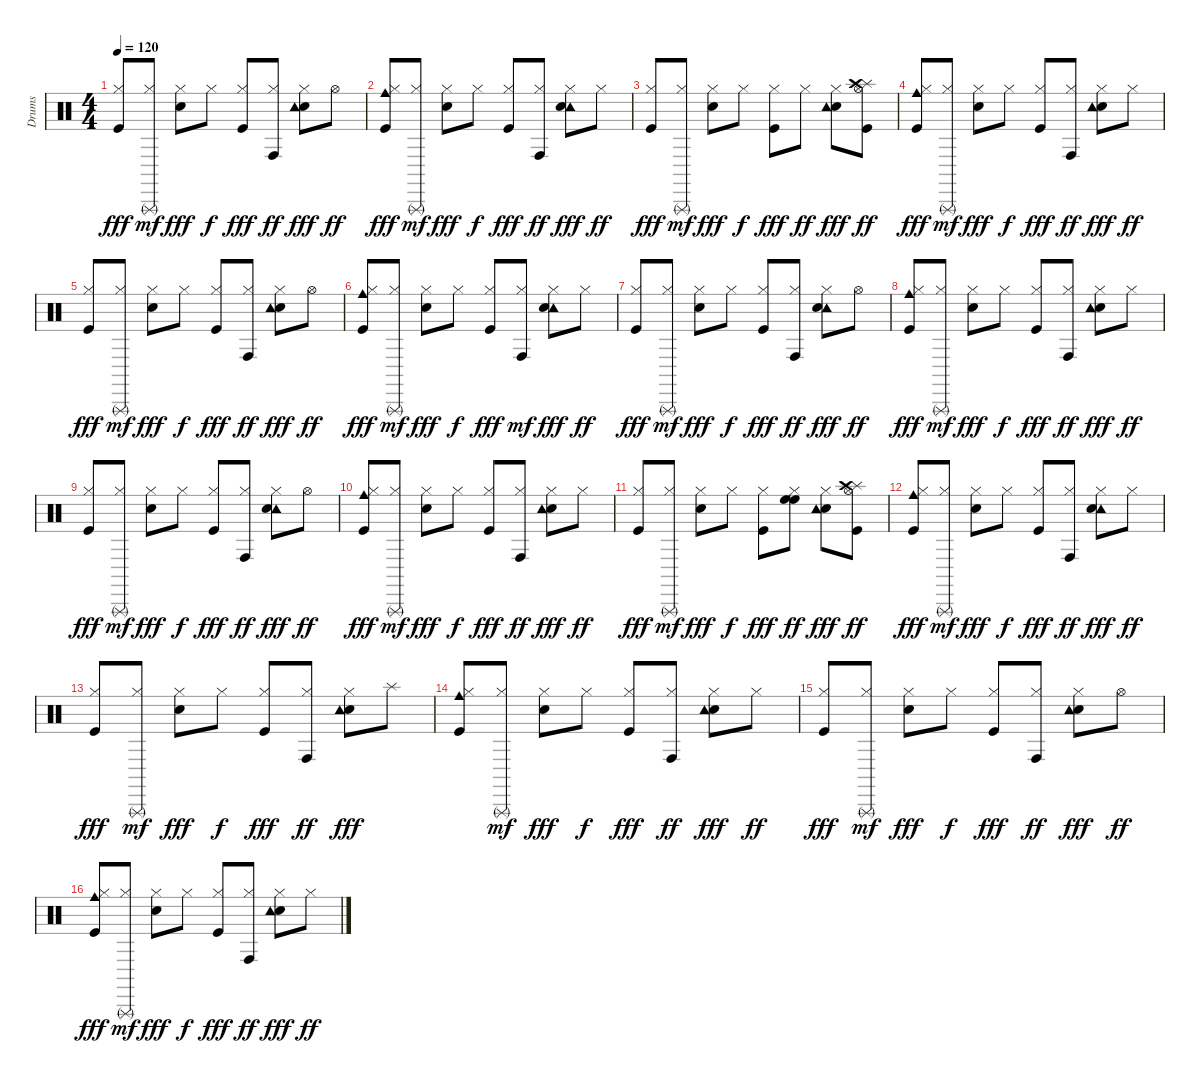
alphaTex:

\track ("Drums " "Drums ") {instrument percussion}
\staff {score}
\articulation defaults
\ts (4 4)
\tempo 120
\clef neutral
\ks c
("Hi-Hat (closed)" "Kick (hit)").8{dy fff} ("Triangle (rnute)" "Hi-Hat (closed)").8{dy mf} ("Hi-Hat (closed)" "Electric Snare (hit)").8{dy fff} "Hi-Hat (closed)".8{dy f} ("Hi-Hat (closed)" "Kick (hit)").8{dy fff} ("Conga high (hit)" "Hi-Hat (closed)").8{dy ff} ("Electric Snare (hit)" "Tambourine (hit)" "Hi-Hat (closed)").8{dy fff} "Hi-Hat (open)".8{dy ff} |
("Hi-Hat (closed)" "Kick (hit)" "Cowbell medium (hit)").8{dy fff} ("Triangle (rnute)" "Hi-Hat (closed)").8{dy mf} ("Hi-Hat (closed)" "Electric Snare (hit)").8{dy fff} "Hi-Hat (closed)".8{dy f} ("Hi-Hat (closed)" "Kick (hit)").8{dy fff} ("Conga high (hit)" "Hi-Hat (closed)").8{dy ff} ("Tambourine (hit)" "Hi-Hat (closed)" "Electric Snare (hit)").8{dy fff} "Hi-Hat (closed)".8{dy ff} |
("Hi-Hat (closed)" "Kick (hit)").8{dy fff} ("Triangle (rnute)" "Hi-Hat (closed)").8{dy mf} ("Hi-Hat (closed)" "Electric Snare (hit)").8{dy fff} "Hi-Hat (closed)".8{dy f} ("Hi-Hat (closed)" "Kick (hit)").8{dy fff} "Hi-Hat (closed)".8{dy ff} ("Electric Snare (hit)" "Tambourine (hit)" "Hi-Hat (closed)").8{dy fff} ("Hi-Hat (open)" "Kick (hit)" "Splash (hit)" "Crash high (hit)").8{dy ff} |
("Hi-Hat (closed)" "Kick (hit)" "Cowbell medium (hit)").8{dy fff} ("Triangle (rnute)" "Hi-Hat (closed)").8{dy mf} ("Hi-Hat (closed)" "Electric Snare (hit)").8{dy fff} "Hi-Hat (closed)".8{dy f} ("Hi-Hat (closed)" "Kick (hit)").8{dy fff} ("Conga high (hit)" "Hi-Hat (closed)").8{dy ff} ("Electric Snare (hit)" "Tambourine (hit)" "Hi-Hat (closed)").8{dy fff} "Hi-Hat (closed)".8{dy ff} |
("Hi-Hat (closed)" "Kick (hit)").8{dy fff} ("Triangle (rnute)" "Hi-Hat (closed)").8{dy mf} ("Electric Snare (hit)" "Hi-Hat (closed)").8{dy fff} "Hi-Hat (closed)".8{dy f} ("Hi-Hat (closed)" "Kick (hit)").8{dy fff} ("Conga high (hit)" "Hi-Hat (closed)").8{dy ff} ("Electric Snare (hit)" "Tambourine (hit)" "Hi-Hat (closed)").8{dy fff} "Hi-Hat (open)".8{dy ff} |
("Hi-Hat (closed)" "Kick (hit)" "Cowbell medium (hit)").8{dy fff} ("Triangle (rnute)" "Hi-Hat (closed)").8{dy mf} ("Hi-Hat (closed)" "Electric Snare (hit)").8{dy fff} "Hi-Hat (closed)".8{dy f} ("Hi-Hat (closed)" "Kick (hit)").8{dy fff} ("Hi-Hat (closed)" "Conga high (hit)").8{dy mf} ("Tambourine (hit)" "Hi-Hat (closed)" "Electric Snare (hit)").8{dy fff} "Hi-Hat (closed)".8{dy ff} |
("Hi-Hat (closed)" "Kick (hit)").8{dy fff} ("Triangle (rnute)" "Hi-Hat (closed)").8{dy mf} ("Hi-Hat (closed)" "Electric Snare (hit)").8{dy fff} "Hi-Hat (closed)".8{dy f} ("Hi-Hat (closed)" "Kick (hit)").8{dy fff} ("Conga high (hit)" "Hi-Hat (closed)").8{dy ff} ("Tambourine (hit)" "Hi-Hat (closed)" "Electric Snare (hit)").8{dy fff} "Hi-Hat (open)".8{dy ff} |
("Hi-Hat (closed)" "Kick (hit)" "Cowbell medium (hit)").8{dy fff} ("Triangle (rnute)" "Hi-Hat (closed)").8{dy mf} ("Hi-Hat (closed)" "Electric Snare (hit)").8{dy fff} "Hi-Hat (closed)".8{dy f} ("Hi-Hat (closed)" "Kick (hit)").8{dy fff} ("Conga high (hit)" "Hi-Hat (closed)").8{dy ff} ("Electric Snare (hit)" "Tambourine (hit)" "Hi-Hat (closed)").8{dy fff} "Hi-Hat (closed)".8{dy ff} |
("Hi-Hat (closed)" "Kick (hit)").8{dy fff} ("Triangle (rnute)" "Hi-Hat (closed)").8{dy mf} ("Hi-Hat (closed)" "Electric Snare (hit)").8{dy fff} "Hi-Hat (closed)".8{dy f} ("Hi-Hat (closed)" "Kick (hit)").8{dy fff} ("Conga high (hit)" "Hi-Hat (closed)").8{dy ff} ("Tambourine (hit)" "Hi-Hat (closed)" "Electric Snare (hit)").8{dy fff} "Hi-Hat (open)".8{dy ff} |
("Hi-Hat (closed)" "Kick (hit)" "Cowbell medium (hit)").8{dy fff} ("Triangle (rnute)" "Hi-Hat (closed)").8{dy mf} ("Hi-Hat (closed)" "Electric Snare (hit)").8{dy fff} "Hi-Hat (closed)".8{dy f} ("Hi-Hat (closed)" "Kick (hit)").8{dy fff} ("Conga high (hit)" "Hi-Hat (closed)").8{dy ff} ("Electric Snare (hit)" "Tambourine (hit)" "Hi-Hat (closed)").8{dy fff} "Hi-Hat (closed)".8{dy ff} |
("Hi-Hat (closed)" "Kick (hit)").8{dy fff} ("Triangle (rnute)" "Hi-Hat (closed)").8{dy mf} ("Hi-Hat (closed)" "Electric Snare (hit)").8{dy fff} "Hi-Hat (closed)".8{dy f} ("Hi-Hat (closed)" "Kick (hit)").8{dy fff} ("High Floor Tom (hit)" "Hi-Hat (closed)" "High Floor Tom (hit)").8{dy ff} ("Electric Snare (hit)" "Tambourine (hit)" "Hi-Hat (closed)").8{dy fff} ("Hi-Hat (open)" "Kick (hit)" "Splash (hit)" "Crash high (hit)").8{dy ff} |
("Hi-Hat (closed)" "Kick (hit)" "Cowbell medium (hit)").8{dy fff} ("Triangle (rnute)" "Hi-Hat (closed)").8{dy mf} ("Hi-Hat (closed)" "Electric Snare (hit)").8{dy fff} "Hi-Hat (closed)".8{dy f} ("Hi-Hat (closed)" "Kick (hit)").8{dy fff} ("Conga high (hit)" "Hi-Hat (closed)").8{dy ff} ("Tambourine (hit)" "Hi-Hat (closed)" "Electric Snare (hit)").8{dy fff} "Hi-Hat (closed)".8{dy ff} |
("Hi-Hat (closed)" "Kick (hit)").8{dy fff} ("Triangle (rnute)" "Hi-Hat (closed)").8{dy mf} ("Electric Snare (hit)" "Hi-Hat (closed)").8{dy fff} "Hi-Hat (closed)".8{dy f} ("Hi-Hat (closed)" "Kick (hit)").8{dy fff} ("Conga high (hit)" "Hi-Hat (closed)").8{dy ff} ("Electric Snare (hit)" "Tambourine (hit)" "Hi-Hat (closed)").8{dy fff} "Splash (hit)".8 |
("Hi-Hat (closed)" "Kick (hit)" "Cowbell medium (hit)").8 ("Triangle (rnute)" "Hi-Hat (closed)").8{dy mf} ("Hi-Hat (closed)" "Electric Snare (hit)").8{dy fff} "Hi-Hat (closed)".8{dy f} ("Hi-Hat (closed)" "Kick (hit)").8{dy fff} ("Conga high (hit)" "Hi-Hat (closed)").8{dy ff} ("Electric Snare (hit)" "Tambourine (hit)" "Hi-Hat (closed)").8{dy fff} "Hi-Hat (closed)".8{dy ff} |
("Hi-Hat (closed)" "Kick (hit)").8{dy fff} ("Triangle (rnute)" "Hi-Hat (closed)").8{dy mf} ("Hi-Hat (closed)" "Electric Snare (hit)").8{dy fff} "Hi-Hat (closed)".8{dy f} ("Kick (hit)" "Hi-Hat (closed)").8{dy fff} ("Conga high (hit)" "Hi-Hat (closed)").8{dy ff} ("Electric Snare (hit)" "Tambourine (hit)" "Hi-Hat (closed)").8{dy fff} "Hi-Hat (open)".8{dy ff} |
("Hi-Hat (closed)" "Kick (hit)" "Cowbell medium (hit)").8{dy fff} ("Triangle (rnute)" "Hi-Hat (closed)").8{dy mf} ("Electric Snare (hit)" "Hi-Hat (closed)").8{dy fff} "Hi-Hat (closed)".8{dy f} ("Hi-Hat (closed)" "Kick (hit)").8{dy fff} ("Conga high (hit)" "Hi-Hat (closed)").8{dy ff} ("Electric Snare (hit)" "Tambourine (hit)" "Hi-Hat (closed)").8{dy fff} "Hi-Hat (closed)".8{dy ff}
